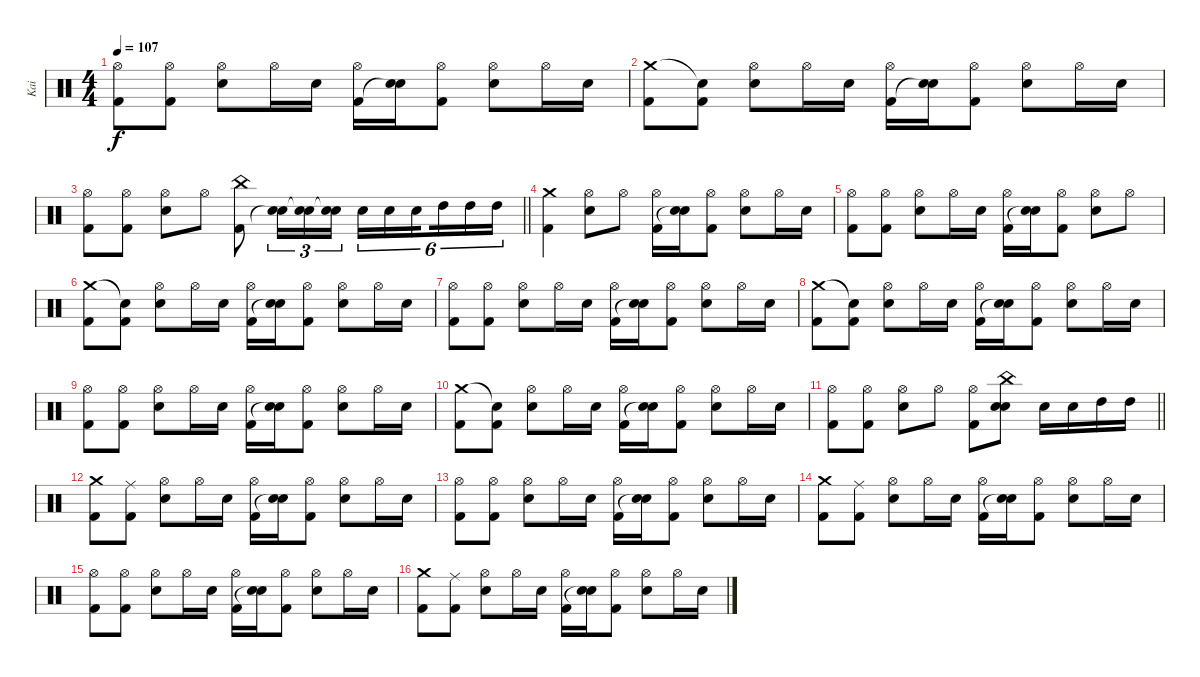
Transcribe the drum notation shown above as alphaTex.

\track ("Kai" "Kai") {instrument percussion}
\staff {score}
\articulation defaults
\ts (4 4)
\tempo 107
\clef neutral
\ks c
("Hi-Hat (open)" "Kick (hit) 2").8{dy f} ("Hi-Hat (open)" "Kick (hit) 2").8 ("Hi-Hat (open)" "Snare (hit) 2").8 "Hi-Hat (open)".16 "Snare (hit) 2".16 ("Hi-Hat (open)" "Kick (hit) 2").16 ("Snare (hit) 2" "Snare (hit)"{t}).16 ("Hi-Hat (open)" "Kick (hit) 2").8 ("Hi-Hat (open)" "Snare (hit) 2").8 "Hi-Hat (open)".16 "Snare (hit) 2".16 |
("Crash medium (hit)" "Kick (hit) 2").8 ("Snare (hit)"{t} "Kick (hit) 2").8 ("Hi-Hat (open)" "Snare (hit) 2").8 "Hi-Hat (open)".16 "Snare (hit) 2".16 ("Hi-Hat (open)" "Kick (hit) 2").16 ("Snare (hit) 2" "Snare (hit)"{t}).16 ("Hi-Hat (open)" "Kick (hit) 2").8 ("Hi-Hat (open)" "Snare (hit) 2").8 "Hi-Hat (open)".16 "Snare (hit) 2".16 |
\barLineRight lightlight
("Hi-Hat (open)" "Kick (hit) 2").8 ("Hi-Hat (open)" "Kick (hit) 2").8 ("Hi-Hat (open)" "Snare (hit) 2").8 "Hi-Hat (open)".8 ("China (hit)" "Kick (hit) 2").8 ("Snare (hit) 2" "Snare (hit)"{t}).16{tu (3 2)} ("Snare (hit) 2" "Snare (hit)"{t}).16{tu (3 2)} ("Snare (hit) 2" "Snare (hit)"{t}).16{tu (3 2)} "Snare (hit) 2".16{tu (6 4)} "Snare (hit) 2".16{tu (6 4)} "Snare (hit) 2".16{tu (6 4) beam splitsecondary} "High Tom (hit)".16{tu (6 4)} "High Tom (hit)".16{tu (6 4)} "High Tom (hit)".16{tu (6 4)} |
("Crash medium (hit)" "Kick (hit) 2").4 ("Hi-Hat (open)" "Snare (hit) 2").8 "Hi-Hat (open)".8 ("Hi-Hat (open)" "Kick (hit) 2").16 ("Snare (hit) 2" "Snare (hit)"{t}).16 ("Hi-Hat (open)" "Kick (hit) 2").8 ("Hi-Hat (open)" "Snare (hit) 2").8 "Hi-Hat (open)".16 "Snare (hit) 2".16 |
("Hi-Hat (open)" "Kick (hit) 2").8 ("Hi-Hat (open)" "Kick (hit) 2").8 ("Hi-Hat (open)" "Snare (hit) 2").8 "Hi-Hat (open)".16 "Snare (hit) 2".16 ("Hi-Hat (open)" "Kick (hit) 2").16 ("Snare (hit) 2" "Snare (hit)"{t}).16 ("Hi-Hat (open)" "Kick (hit) 2").8 ("Hi-Hat (open)" "Snare (hit) 2").8 "Hi-Hat (open)".8 |
("Crash medium (hit)" "Kick (hit) 2").8 ("Snare (hit)"{t} "Kick (hit) 2").8 ("Hi-Hat (open)" "Snare (hit) 2").8 "Hi-Hat (open)".16 "Snare (hit) 2".16 ("Hi-Hat (open)" "Kick (hit) 2").16 ("Snare (hit) 2" "Snare (hit)"{t}).16 ("Hi-Hat (open)" "Kick (hit) 2").8 ("Hi-Hat (open)" "Snare (hit) 2").8 "Hi-Hat (open)".16 "Snare (hit) 2".16 |
("Hi-Hat (open)" "Kick (hit) 2").8 ("Hi-Hat (open)" "Kick (hit) 2").8 ("Hi-Hat (open)" "Snare (hit) 2").8 "Hi-Hat (open)".16 "Snare (hit) 2".16 ("Hi-Hat (open)" "Kick (hit) 2").16 ("Snare (hit) 2" "Snare (hit)"{t}).16 ("Hi-Hat (open)" "Kick (hit) 2").8 ("Hi-Hat (open)" "Snare (hit) 2").8 "Hi-Hat (open)".16 "Snare (hit) 2".16 |
("Crash medium (hit)" "Kick (hit) 2").8 ("Snare (hit)"{t} "Kick (hit) 2").8 ("Hi-Hat (open)" "Snare (hit) 2").8 "Hi-Hat (open)".16 "Snare (hit) 2".16 ("Hi-Hat (open)" "Kick (hit) 2").16 ("Snare (hit) 2" "Snare (hit)"{t}).16 ("Hi-Hat (open)" "Kick (hit) 2").8 ("Hi-Hat (open)" "Snare (hit) 2").8 "Hi-Hat (open)".16 "Snare (hit) 2".16 |
("Hi-Hat (open)" "Kick (hit) 2").8 ("Hi-Hat (open)" "Kick (hit) 2").8 ("Hi-Hat (open)" "Snare (hit) 2").8 "Hi-Hat (open)".16 "Snare (hit) 2".16 ("Hi-Hat (open)" "Kick (hit) 2").16 ("Snare (hit) 2" "Snare (hit)"{t}).16 ("Hi-Hat (open)" "Kick (hit) 2").8 ("Hi-Hat (open)" "Snare (hit) 2").8 "Hi-Hat (open)".16 "Snare (hit) 2".16 |
("Crash medium (hit)" "Kick (hit) 2").8 ("Snare (hit)"{t} "Kick (hit) 2").8 ("Hi-Hat (open)" "Snare (hit) 2").8 "Hi-Hat (open)".16 "Snare (hit) 2".16 ("Hi-Hat (open)" "Kick (hit) 2").16 ("Snare (hit) 2" "Snare (hit)"{t}).16 ("Hi-Hat (open)" "Kick (hit) 2").8 ("Hi-Hat (open)" "Snare (hit) 2").8 "Hi-Hat (open)".16 "Snare (hit) 2".16 |
\barLineRight lightlight
("Hi-Hat (open)" "Kick (hit) 2").8 ("Hi-Hat (open)" "Kick (hit) 2").8 ("Hi-Hat (open)" "Snare (hit) 2").8 "Hi-Hat (open)".8 ("Hi-Hat (open)" "Kick (hit) 2").8 ("China (hit)" "Snare (hit) 2" "Snare (hit)").8 "Snare (hit) 2".16 "Snare (hit) 2".16 "High Tom (hit)".16 "High Tom (hit)".16 |
("Crash medium (hit)" "Kick (hit) 2").8 ("Ride (middle)" "Kick (hit) 2").8 ("Hi-Hat (open)" "Snare (hit) 2").8 "Hi-Hat (open)".16 "Snare (hit) 2".16 ("Hi-Hat (open)" "Kick (hit) 2").16 ("Snare (hit) 2" "Snare (hit)"{t}).16 ("Hi-Hat (open)" "Kick (hit) 2").8 ("Hi-Hat (open)" "Snare (hit) 2").8 "Hi-Hat (open)".16 "Snare (hit) 2".16 |
("Hi-Hat (open)" "Kick (hit) 2").8 ("Hi-Hat (open)" "Kick (hit) 2").8 ("Hi-Hat (open)" "Snare (hit) 2").8 "Hi-Hat (open)".16 "Snare (hit) 2".16 ("Hi-Hat (open)" "Kick (hit) 2").16 ("Snare (hit) 2" "Snare (hit)"{t}).16 ("Hi-Hat (open)" "Kick (hit) 2").8 ("Hi-Hat (open)" "Snare (hit) 2").8 "Hi-Hat (open)".16 "Snare (hit) 2".16 |
("Crash medium (hit)" "Kick (hit) 2").8 ("Ride (middle)" "Kick (hit) 2").8 ("Hi-Hat (open)" "Snare (hit) 2").8 "Hi-Hat (open)".16 "Snare (hit) 2".16 ("Hi-Hat (open)" "Kick (hit) 2").16 ("Snare (hit) 2" "Snare (hit)"{t}).16 ("Hi-Hat (open)" "Kick (hit) 2").8 ("Hi-Hat (open)" "Snare (hit) 2").8 "Hi-Hat (open)".16 "Snare (hit) 2".16 |
("Hi-Hat (open)" "Kick (hit) 2").8 ("Hi-Hat (open)" "Kick (hit) 2").8 ("Hi-Hat (open)" "Snare (hit) 2").8 "Hi-Hat (open)".16 "Snare (hit) 2".16 ("Hi-Hat (open)" "Kick (hit) 2").16 ("Snare (hit) 2" "Snare (hit)"{t}).16 ("Hi-Hat (open)" "Kick (hit) 2").8 ("Hi-Hat (open)" "Snare (hit) 2").8 "Hi-Hat (open)".16 "Snare (hit) 2".16 |
("Crash medium (hit)" "Kick (hit) 2").8 ("Ride (middle)" "Kick (hit) 2").8 ("Hi-Hat (open)" "Snare (hit) 2").8 "Hi-Hat (open)".16 "Snare (hit) 2".16 ("Hi-Hat (open)" "Kick (hit) 2").16 ("Snare (hit) 2" "Snare (hit)"{t}).16 ("Hi-Hat (open)" "Kick (hit) 2").8 ("Hi-Hat (open)" "Snare (hit) 2").8 "Hi-Hat (open)".16 "Snare (hit) 2".16
